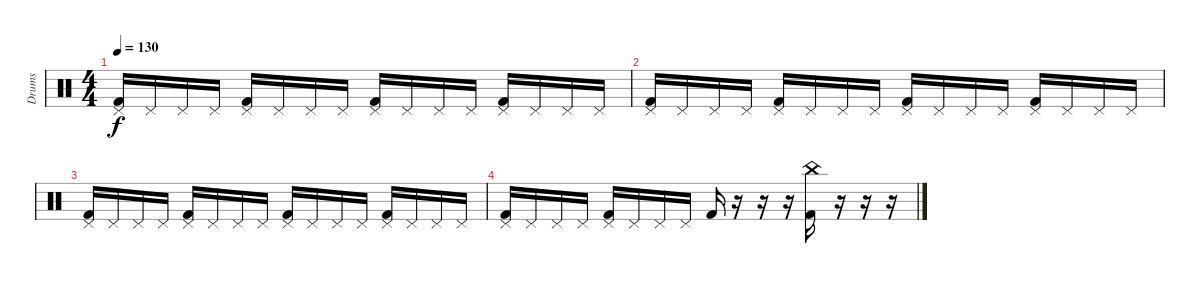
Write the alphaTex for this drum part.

\track ("Drums" "Drums") {instrument percussion}
\staff {score}
\articulation defaults
\ts (4 4)
\tempo 130
\clef neutral
\ks c
("Pedal Hi-Hat (hit)" "Kick (hit) 2").16{dy f} "Pedal Hi-Hat (hit)".16 "Pedal Hi-Hat (hit)".16 "Pedal Hi-Hat (hit)".16 ("Pedal Hi-Hat (hit)" "Kick (hit) 2").16 "Pedal Hi-Hat (hit)".16 "Pedal Hi-Hat (hit)".16 "Pedal Hi-Hat (hit)".16 ("Pedal Hi-Hat (hit)" "Kick (hit) 2").16 "Pedal Hi-Hat (hit)".16 "Pedal Hi-Hat (hit)".16 "Pedal Hi-Hat (hit)".16 ("Pedal Hi-Hat (hit)" "Kick (hit) 2").16 "Pedal Hi-Hat (hit)".16 "Pedal Hi-Hat (hit)".16 "Pedal Hi-Hat (hit)".16 |
("Pedal Hi-Hat (hit)" "Kick (hit) 2").16 "Pedal Hi-Hat (hit)".16 "Pedal Hi-Hat (hit)".16 "Pedal Hi-Hat (hit)".16 ("Pedal Hi-Hat (hit)" "Kick (hit) 2").16 "Pedal Hi-Hat (hit)".16 "Pedal Hi-Hat (hit)".16 "Pedal Hi-Hat (hit)".16 ("Pedal Hi-Hat (hit)" "Kick (hit) 2").16 "Pedal Hi-Hat (hit)".16 "Pedal Hi-Hat (hit)".16 "Pedal Hi-Hat (hit)".16 ("Pedal Hi-Hat (hit)" "Kick (hit) 2").16 "Pedal Hi-Hat (hit)".16 "Pedal Hi-Hat (hit)".16 "Pedal Hi-Hat (hit)".16 |
("Pedal Hi-Hat (hit)" "Kick (hit) 2").16 "Pedal Hi-Hat (hit)".16 "Pedal Hi-Hat (hit)".16 "Pedal Hi-Hat (hit)".16 ("Pedal Hi-Hat (hit)" "Kick (hit) 2").16 "Pedal Hi-Hat (hit)".16 "Pedal Hi-Hat (hit)".16 "Pedal Hi-Hat (hit)".16 ("Pedal Hi-Hat (hit)" "Kick (hit) 2").16 "Pedal Hi-Hat (hit)".16 "Pedal Hi-Hat (hit)".16 "Pedal Hi-Hat (hit)".16 ("Pedal Hi-Hat (hit)" "Kick (hit) 2").16 "Pedal Hi-Hat (hit)".16 "Pedal Hi-Hat (hit)".16 "Pedal Hi-Hat (hit)".16 |
("Pedal Hi-Hat (hit)" "Kick (hit) 2").16 "Pedal Hi-Hat (hit)".16 "Pedal Hi-Hat (hit)".16 "Pedal Hi-Hat (hit)".16 ("Pedal Hi-Hat (hit)" "Kick (hit) 2").16 "Pedal Hi-Hat (hit)".16 "Pedal Hi-Hat (hit)".16 "Pedal Hi-Hat (hit)".16 "Kick (hit) 2".16 r.16 r.16 r.16 ("China (hit)" "Kick (hit) 2").16 r.16 r.16 r.16
